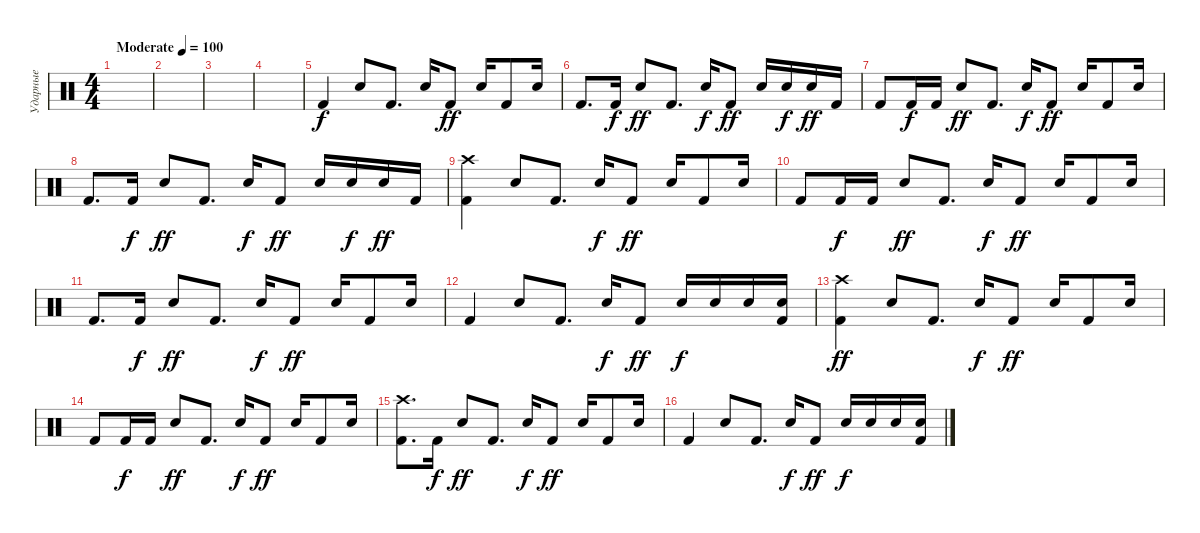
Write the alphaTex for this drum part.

\track ("Ударные" "Ударные") {instrument percussion}
\staff {score}
\articulation defaults
\ts (4 4)
\tempo (100 "Moderate")
\clef neutral
\ks c
|
|
|
|
"Kick (hit) 2".4 "Snare (hit) 2".8 "Kick (hit) 2".8{d} "Snare (hit) 2".16{dy f} "Kick (hit) 2".8{dy ff} "Snare (hit) 2".16 "Kick (hit) 2".8 "Snare (hit) 2".16 |
"Kick (hit) 2".8{d} "Kick (hit) 2".16{dy f} "Snare (hit) 2".8{dy ff} "Kick (hit) 2".8{d} "Snare (hit) 2".16{dy f} "Kick (hit) 2".8{dy ff} "Snare (hit) 2".16 "Snare (hit) 2".16{dy f} "Snare (hit) 2".16{dy ff} "Kick (hit) 2".16 |
"Kick (hit) 2".8 "Kick (hit) 2".16{dy f} "Kick (hit) 2".16 "Snare (hit) 2".8{dy ff} "Kick (hit) 2".8{d} "Snare (hit) 2".16{dy f} "Kick (hit) 2".8{dy ff} "Snare (hit) 2".16 "Kick (hit) 2".8 "Snare (hit) 2".16 |
"Kick (hit) 2".8{d} "Kick (hit) 2".16{dy f} "Snare (hit) 2".8{dy ff} "Kick (hit) 2".8{d} "Snare (hit) 2".16{dy f} "Kick (hit) 2".8{dy ff} "Snare (hit) 2".16 "Snare (hit) 2".16{dy f} "Snare (hit) 2".16{dy ff} "Kick (hit) 2".16 |
("Crash high (hit)" "Kick (hit) 2").4 "Snare (hit) 2".8 "Kick (hit) 2".8{d} "Snare (hit) 2".16{dy f} "Kick (hit) 2".8{dy ff} "Snare (hit) 2".16 "Kick (hit) 2".8 "Snare (hit) 2".16 |
"Kick (hit) 2".8 "Kick (hit) 2".16{dy f} "Kick (hit) 2".16 "Snare (hit) 2".8{dy ff} "Kick (hit) 2".8{d} "Snare (hit) 2".16{dy f} "Kick (hit) 2".8{dy ff} "Snare (hit) 2".16 "Kick (hit) 2".8 "Snare (hit) 2".16 |
"Kick (hit) 2".8{d} "Kick (hit) 2".16{dy f} "Snare (hit) 2".8{dy ff} "Kick (hit) 2".8{d} "Snare (hit) 2".16{dy f} "Kick (hit) 2".8{dy ff} "Snare (hit) 2".16 "Kick (hit) 2".8 "Snare (hit) 2".16 |
"Kick (hit) 2".4 "Snare (hit) 2".8 "Kick (hit) 2".8{d} "Snare (hit) 2".16{dy f} "Kick (hit) 2".8{dy ff} "Electric Snare (hit)".16{dy f} "Electric Snare (hit)".16 "Snare (hit) 2".16 ("Snare (hit) 2" "Kick (hit) 2").16 |
("Crash high (hit)" "Kick (hit) 2").4{dy ff} "Snare (hit) 2".8 "Kick (hit) 2".8{d} "Snare (hit) 2".16{dy f} "Kick (hit) 2".8{dy ff} "Snare (hit) 2".16 "Kick (hit) 2".8 "Snare (hit) 2".16 |
"Kick (hit) 2".8 "Kick (hit) 2".16{dy f} "Kick (hit) 2".16 "Snare (hit) 2".8{dy ff} "Kick (hit) 2".8{d} "Snare (hit) 2".16{dy f} "Kick (hit) 2".8{dy ff} "Snare (hit) 2".16 "Kick (hit) 2".8 "Snare (hit) 2".16 |
("Crash high (hit)" "Kick (hit) 2").8{d} "Kick (hit) 2".16{dy f} "Snare (hit) 2".8{dy ff} "Kick (hit) 2".8{d} "Snare (hit) 2".16{dy f} "Kick (hit) 2".8{dy ff} "Snare (hit) 2".16 "Kick (hit) 2".8 "Snare (hit) 2".16 |
"Kick (hit) 2".4 "Snare (hit) 2".8 "Kick (hit) 2".8{d} "Snare (hit) 2".16{dy f} "Kick (hit) 2".8{dy ff} "Electric Snare (hit)".16{dy f} "Electric Snare (hit)".16 "Snare (hit) 2".16 ("Snare (hit) 2" "Kick (hit) 2").16
